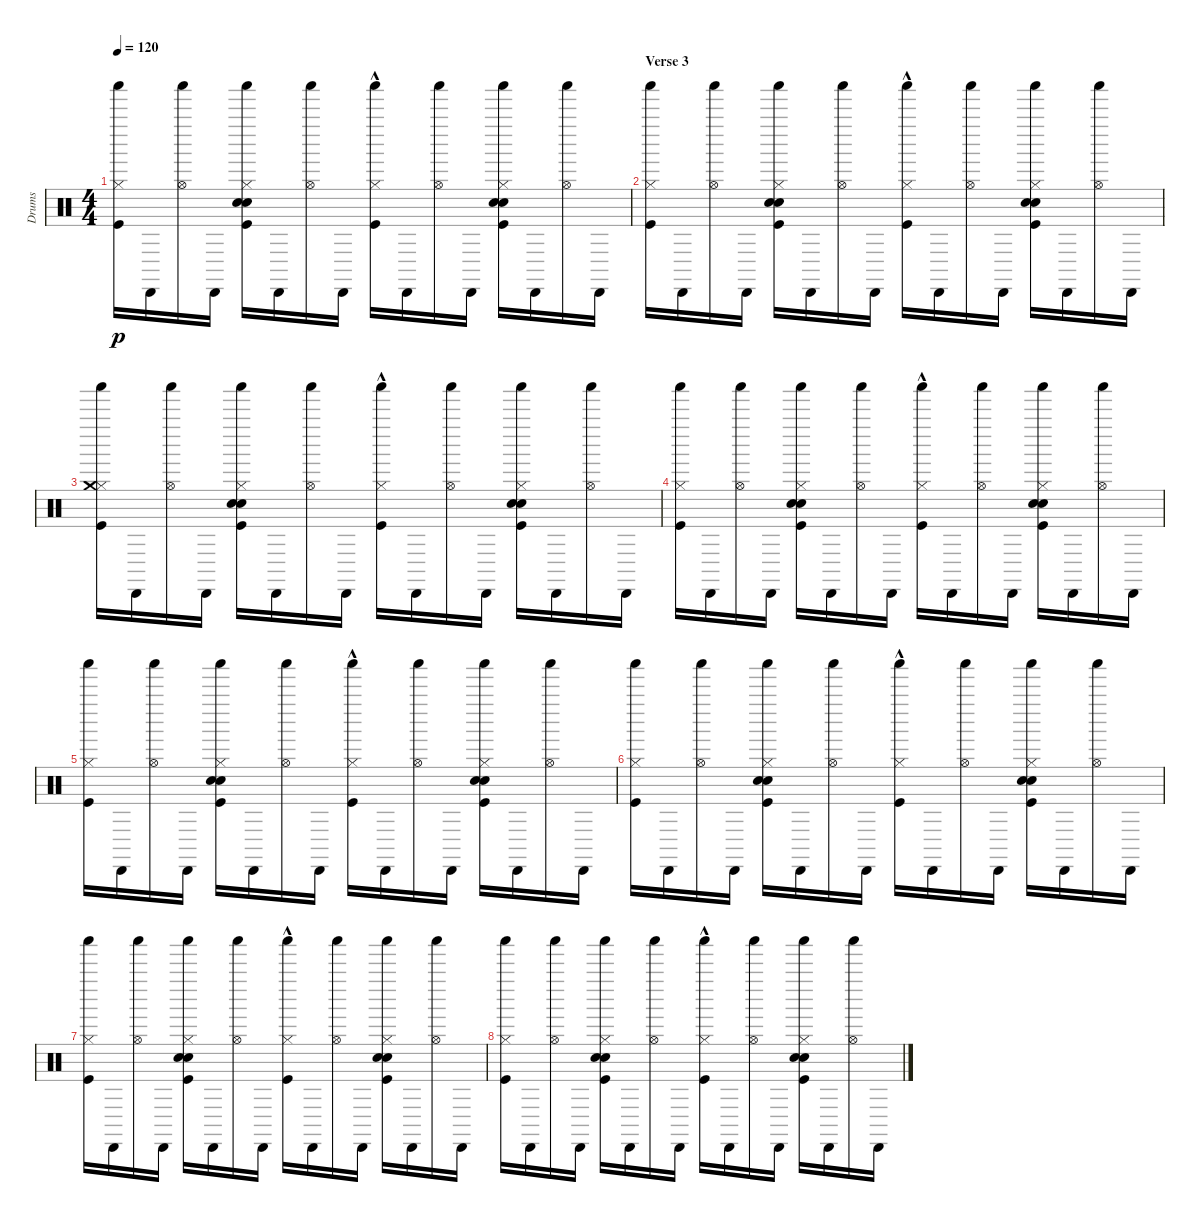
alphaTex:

\track ("Drums" "Drums") {instrument percussion}
\staff {score}
\articulation defaults
\ts (4 4)
\tempo 120
\clef neutral
\ks c
("Kick (hit)" "Hi-Hat (closed)" "Shaker (hit)").16{dy p} "Cabasa (hit)".16 ("Hi-Hat (open)" "Shaker (hit)").16 "Cabasa (hit)".16 ("Kick (hit)" "Snare (hit) 2" "Electric Snare (hit)" "Hi-Hat (closed)" "Shaker (hit)").16 "Cabasa (hit)".16 ("Hi-Hat (open)" "Shaker (hit)").16 "Cabasa (hit)".16 ("Kick (hit)" "Hi-Hat (closed)" "Shaker (hit)"{hac}).16 "Cabasa (hit)".16 ("Hi-Hat (open)" "Shaker (hit)").16 "Cabasa (hit)".16 ("Kick (hit)" "Snare (hit) 2" "Electric Snare (hit)" "Hi-Hat (closed)" "Shaker (hit)").16 "Cabasa (hit)".16 ("Hi-Hat (open)" "Shaker (hit)").16 "Cabasa (hit)".16 |
\section ("" "Verse 3")
("Kick (hit)" "Hi-Hat (closed)" "Shaker (hit)").16 "Cabasa (hit)".16 ("Hi-Hat (open)" "Shaker (hit)").16 "Cabasa (hit)".16 ("Kick (hit)" "Snare (hit) 2" "Electric Snare (hit)" "Hi-Hat (closed)" "Shaker (hit)").16 "Cabasa (hit)".16 ("Hi-Hat (open)" "Shaker (hit)").16 "Cabasa (hit)".16 ("Kick (hit)" "Hi-Hat (closed)" "Shaker (hit)"{hac}).16 "Cabasa (hit)".16 ("Hi-Hat (open)" "Shaker (hit)").16 "Cabasa (hit)".16 ("Kick (hit)" "Snare (hit) 2" "Electric Snare (hit)" "Hi-Hat (closed)" "Shaker (hit)").16 "Cabasa (hit)".16 ("Hi-Hat (open)" "Shaker (hit)").16 "Cabasa (hit)".16 |
("Kick (hit)" "Hi-Hat (closed)" "Crash medium (hit)" "Shaker (hit)").16 "Cabasa (hit)".16 ("Hi-Hat (open)" "Shaker (hit)").16 "Cabasa (hit)".16 ("Kick (hit)" "Snare (hit) 2" "Electric Snare (hit)" "Hi-Hat (closed)" "Shaker (hit)").16 "Cabasa (hit)".16 ("Hi-Hat (open)" "Shaker (hit)").16 "Cabasa (hit)".16 ("Kick (hit)" "Hi-Hat (closed)" "Shaker (hit)"{hac}).16 "Cabasa (hit)".16 ("Hi-Hat (open)" "Shaker (hit)").16 "Cabasa (hit)".16 ("Kick (hit)" "Snare (hit) 2" "Electric Snare (hit)" "Hi-Hat (closed)" "Shaker (hit)").16 "Cabasa (hit)".16 ("Hi-Hat (open)" "Shaker (hit)").16 "Cabasa (hit)".16 |
("Kick (hit)" "Hi-Hat (closed)" "Shaker (hit)").16 "Cabasa (hit)".16 ("Hi-Hat (open)" "Shaker (hit)").16 "Cabasa (hit)".16 ("Kick (hit)" "Snare (hit) 2" "Electric Snare (hit)" "Hi-Hat (closed)" "Shaker (hit)").16 "Cabasa (hit)".16 ("Hi-Hat (open)" "Shaker (hit)").16 "Cabasa (hit)".16 ("Kick (hit)" "Hi-Hat (closed)" "Shaker (hit)"{hac}).16 "Cabasa (hit)".16 ("Hi-Hat (open)" "Shaker (hit)").16 "Cabasa (hit)".16 ("Kick (hit)" "Snare (hit) 2" "Electric Snare (hit)" "Hi-Hat (closed)" "Shaker (hit)").16 "Cabasa (hit)".16 ("Hi-Hat (open)" "Shaker (hit)").16 "Cabasa (hit)".16 |
("Kick (hit)" "Hi-Hat (closed)" "Shaker (hit)").16 "Cabasa (hit)".16 ("Hi-Hat (open)" "Shaker (hit)").16 "Cabasa (hit)".16 ("Kick (hit)" "Snare (hit) 2" "Electric Snare (hit)" "Hi-Hat (closed)" "Shaker (hit)").16 "Cabasa (hit)".16 ("Hi-Hat (open)" "Shaker (hit)").16 "Cabasa (hit)".16 ("Kick (hit)" "Hi-Hat (closed)" "Shaker (hit)"{hac}).16 "Cabasa (hit)".16 ("Hi-Hat (open)" "Shaker (hit)").16 "Cabasa (hit)".16 ("Kick (hit)" "Snare (hit) 2" "Electric Snare (hit)" "Hi-Hat (closed)" "Shaker (hit)").16 "Cabasa (hit)".16 ("Hi-Hat (open)" "Shaker (hit)").16 "Cabasa (hit)".16 |
("Kick (hit)" "Hi-Hat (closed)" "Shaker (hit)").16 "Cabasa (hit)".16 ("Hi-Hat (open)" "Shaker (hit)").16 "Cabasa (hit)".16 ("Kick (hit)" "Snare (hit) 2" "Electric Snare (hit)" "Hi-Hat (closed)" "Shaker (hit)").16 "Cabasa (hit)".16 ("Hi-Hat (open)" "Shaker (hit)").16 "Cabasa (hit)".16 ("Kick (hit)" "Hi-Hat (closed)" "Shaker (hit)"{hac}).16 "Cabasa (hit)".16 ("Hi-Hat (open)" "Shaker (hit)").16 "Cabasa (hit)".16 ("Kick (hit)" "Snare (hit) 2" "Electric Snare (hit)" "Hi-Hat (closed)" "Shaker (hit)").16 "Cabasa (hit)".16 ("Hi-Hat (open)" "Shaker (hit)").16 "Cabasa (hit)".16 |
("Kick (hit)" "Hi-Hat (closed)" "Shaker (hit)").16 "Cabasa (hit)".16 ("Hi-Hat (open)" "Shaker (hit)").16 "Cabasa (hit)".16 ("Kick (hit)" "Snare (hit) 2" "Electric Snare (hit)" "Hi-Hat (closed)" "Shaker (hit)").16 "Cabasa (hit)".16 ("Hi-Hat (open)" "Shaker (hit)").16 "Cabasa (hit)".16 ("Kick (hit)" "Hi-Hat (closed)" "Shaker (hit)"{hac}).16 "Cabasa (hit)".16 ("Hi-Hat (open)" "Shaker (hit)").16 "Cabasa (hit)".16 ("Kick (hit)" "Snare (hit) 2" "Electric Snare (hit)" "Hi-Hat (closed)" "Shaker (hit)").16 "Cabasa (hit)".16 ("Hi-Hat (open)" "Shaker (hit)").16 "Cabasa (hit)".16 |
("Kick (hit)" "Hi-Hat (closed)" "Shaker (hit)").16 "Cabasa (hit)".16 ("Hi-Hat (open)" "Shaker (hit)").16 "Cabasa (hit)".16 ("Kick (hit)" "Snare (hit) 2" "Electric Snare (hit)" "Hi-Hat (closed)" "Shaker (hit)").16 "Cabasa (hit)".16 ("Hi-Hat (open)" "Shaker (hit)").16 "Cabasa (hit)".16 ("Kick (hit)" "Hi-Hat (closed)" "Shaker (hit)"{hac}).16 "Cabasa (hit)".16 ("Hi-Hat (open)" "Shaker (hit)").16 "Cabasa (hit)".16 ("Kick (hit)" "Snare (hit) 2" "Electric Snare (hit)" "Hi-Hat (closed)" "Shaker (hit)").16 "Cabasa (hit)".16 ("Hi-Hat (open)" "Shaker (hit)").16 "Cabasa (hit)".16
